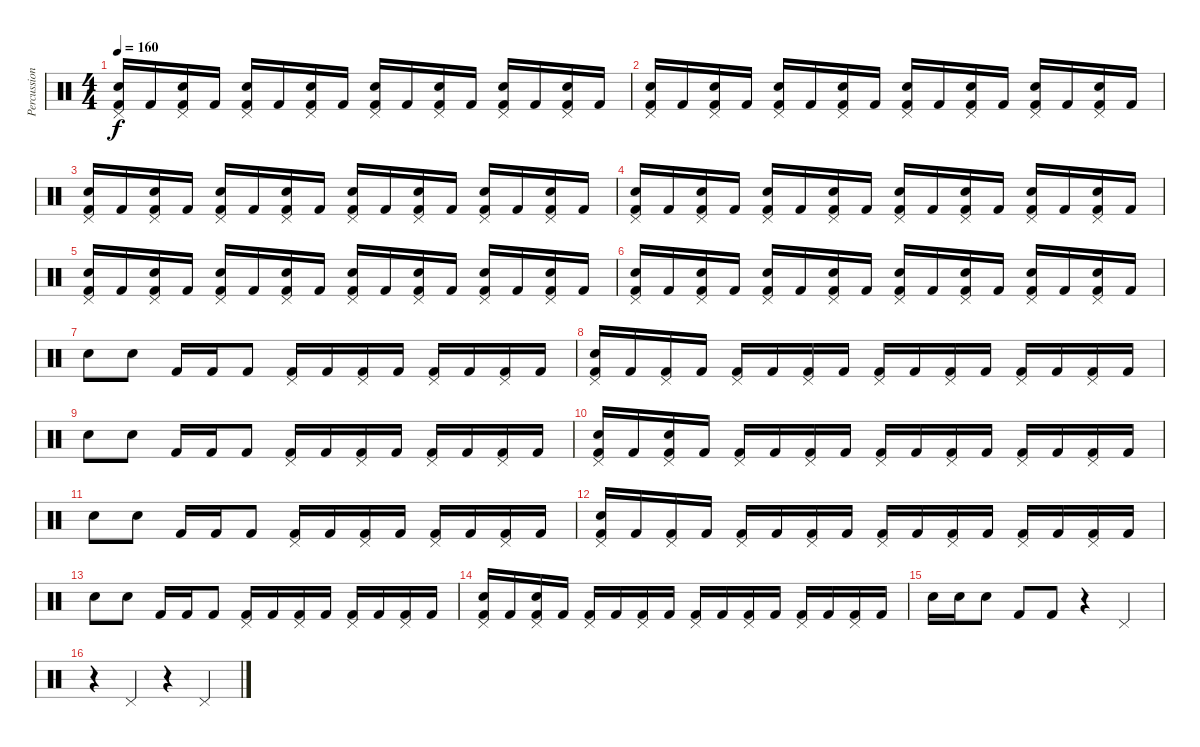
\track ("Percussion" "Percussion") {instrument percussion}
\staff {score}
\articulation defaults
\ts (4 4)
\tempo 160
\clef neutral
\ks c
("Pedal Hi-Hat (hit)" "Snare (hit) 2" "Kick (hit) 2").16{dy f} "Kick (hit) 2".16 ("Pedal Hi-Hat (hit)" "Snare (hit) 2" "Kick (hit) 2").16 "Kick (hit) 2".16 ("Pedal Hi-Hat (hit)" "Snare (hit) 2" "Kick (hit) 2").16 "Kick (hit) 2".16 ("Pedal Hi-Hat (hit)" "Snare (hit) 2" "Kick (hit) 2").16 "Kick (hit) 2".16 ("Pedal Hi-Hat (hit)" "Snare (hit) 2" "Kick (hit) 2").16 "Kick (hit) 2".16 ("Pedal Hi-Hat (hit)" "Snare (hit) 2" "Kick (hit) 2").16 "Kick (hit) 2".16 ("Pedal Hi-Hat (hit)" "Snare (hit) 2" "Kick (hit) 2").16 "Kick (hit) 2".16 ("Pedal Hi-Hat (hit)" "Snare (hit) 2" "Kick (hit) 2").16 "Kick (hit) 2".16 |
("Pedal Hi-Hat (hit)" "Snare (hit) 2" "Kick (hit) 2").16 "Kick (hit) 2".16 ("Pedal Hi-Hat (hit)" "Snare (hit) 2" "Kick (hit) 2").16 "Kick (hit) 2".16 ("Pedal Hi-Hat (hit)" "Snare (hit) 2" "Kick (hit) 2").16 "Kick (hit) 2".16 ("Pedal Hi-Hat (hit)" "Snare (hit) 2" "Kick (hit) 2").16 "Kick (hit) 2".16 ("Pedal Hi-Hat (hit)" "Snare (hit) 2" "Kick (hit) 2").16 "Kick (hit) 2".16 ("Pedal Hi-Hat (hit)" "Snare (hit) 2" "Kick (hit) 2").16 "Kick (hit) 2".16 ("Pedal Hi-Hat (hit)" "Snare (hit) 2" "Kick (hit) 2").16 "Kick (hit) 2".16 ("Pedal Hi-Hat (hit)" "Snare (hit) 2" "Kick (hit) 2").16 "Kick (hit) 2".16 |
("Pedal Hi-Hat (hit)" "Snare (hit) 2" "Kick (hit) 2").16 "Kick (hit) 2".16 ("Pedal Hi-Hat (hit)" "Snare (hit) 2" "Kick (hit) 2").16 "Kick (hit) 2".16 ("Pedal Hi-Hat (hit)" "Snare (hit) 2" "Kick (hit) 2").16 "Kick (hit) 2".16 ("Pedal Hi-Hat (hit)" "Snare (hit) 2" "Kick (hit) 2").16 "Kick (hit) 2".16 ("Pedal Hi-Hat (hit)" "Snare (hit) 2" "Kick (hit) 2").16 "Kick (hit) 2".16 ("Pedal Hi-Hat (hit)" "Snare (hit) 2" "Kick (hit) 2").16 "Kick (hit) 2".16 ("Pedal Hi-Hat (hit)" "Snare (hit) 2" "Kick (hit) 2").16 "Kick (hit) 2".16 ("Pedal Hi-Hat (hit)" "Snare (hit) 2" "Kick (hit) 2").16 "Kick (hit) 2".16 |
("Pedal Hi-Hat (hit)" "Snare (hit) 2" "Kick (hit) 2").16 "Kick (hit) 2".16 ("Pedal Hi-Hat (hit)" "Snare (hit) 2" "Kick (hit) 2").16 "Kick (hit) 2".16 ("Pedal Hi-Hat (hit)" "Snare (hit) 2" "Kick (hit) 2").16 "Kick (hit) 2".16 ("Pedal Hi-Hat (hit)" "Snare (hit) 2" "Kick (hit) 2").16 "Kick (hit) 2".16 ("Pedal Hi-Hat (hit)" "Snare (hit) 2" "Kick (hit) 2").16 "Kick (hit) 2".16 ("Pedal Hi-Hat (hit)" "Snare (hit) 2" "Kick (hit) 2").16 "Kick (hit) 2".16 ("Pedal Hi-Hat (hit)" "Snare (hit) 2" "Kick (hit) 2").16 "Kick (hit) 2".16 ("Pedal Hi-Hat (hit)" "Snare (hit) 2" "Kick (hit) 2").16 "Kick (hit) 2".16 |
("Pedal Hi-Hat (hit)" "Snare (hit) 2" "Kick (hit) 2").16 "Kick (hit) 2".16 ("Pedal Hi-Hat (hit)" "Snare (hit) 2" "Kick (hit) 2").16 "Kick (hit) 2".16 ("Pedal Hi-Hat (hit)" "Snare (hit) 2" "Kick (hit) 2").16 "Kick (hit) 2".16 ("Pedal Hi-Hat (hit)" "Snare (hit) 2" "Kick (hit) 2").16 "Kick (hit) 2".16 ("Pedal Hi-Hat (hit)" "Snare (hit) 2" "Kick (hit) 2").16 "Kick (hit) 2".16 ("Pedal Hi-Hat (hit)" "Snare (hit) 2" "Kick (hit) 2").16 "Kick (hit) 2".16 ("Pedal Hi-Hat (hit)" "Snare (hit) 2" "Kick (hit) 2").16 "Kick (hit) 2".16 ("Pedal Hi-Hat (hit)" "Snare (hit) 2" "Kick (hit) 2").16 "Kick (hit) 2".16 |
("Pedal Hi-Hat (hit)" "Snare (hit) 2" "Kick (hit) 2").16 "Kick (hit) 2".16 ("Pedal Hi-Hat (hit)" "Snare (hit) 2" "Kick (hit) 2").16 "Kick (hit) 2".16 ("Pedal Hi-Hat (hit)" "Snare (hit) 2" "Kick (hit) 2").16 "Kick (hit) 2".16 ("Pedal Hi-Hat (hit)" "Snare (hit) 2" "Kick (hit) 2").16 "Kick (hit) 2".16 ("Pedal Hi-Hat (hit)" "Snare (hit) 2" "Kick (hit) 2").16 "Kick (hit) 2".16 ("Pedal Hi-Hat (hit)" "Snare (hit) 2" "Kick (hit) 2").16 "Kick (hit) 2".16 ("Pedal Hi-Hat (hit)" "Snare (hit) 2" "Kick (hit) 2").16 "Kick (hit) 2".16 ("Pedal Hi-Hat (hit)" "Snare (hit) 2" "Kick (hit) 2").16 "Kick (hit) 2".16 |
"Snare (hit) 2".8 "Snare (hit) 2".8 "Kick (hit) 2".16 "Kick (hit) 2".16 "Kick (hit) 2".8 ("Pedal Hi-Hat (hit)" "Kick (hit) 2").16 "Kick (hit) 2".16 ("Pedal Hi-Hat (hit)" "Kick (hit) 2").16 "Kick (hit) 2".16 ("Pedal Hi-Hat (hit)" "Kick (hit) 2").16 "Kick (hit) 2".16 ("Pedal Hi-Hat (hit)" "Kick (hit) 2").16 "Kick (hit) 2".16 |
("Pedal Hi-Hat (hit)" "Snare (hit) 2" "Kick (hit) 2").16 "Kick (hit) 2".16 ("Pedal Hi-Hat (hit)" "Kick (hit) 2").16 "Kick (hit) 2".16 ("Pedal Hi-Hat (hit)" "Kick (hit) 2").16 "Kick (hit) 2".16 ("Pedal Hi-Hat (hit)" "Kick (hit) 2").16 "Kick (hit) 2".16 ("Pedal Hi-Hat (hit)" "Kick (hit) 2").16 "Kick (hit) 2".16 ("Pedal Hi-Hat (hit)" "Kick (hit) 2").16 "Kick (hit) 2".16 ("Pedal Hi-Hat (hit)" "Kick (hit) 2").16 "Kick (hit) 2".16 ("Pedal Hi-Hat (hit)" "Kick (hit) 2").16 "Kick (hit) 2".16 |
"Snare (hit) 2".8 "Snare (hit) 2".8 "Kick (hit) 2".16 "Kick (hit) 2".16 "Kick (hit) 2".8 ("Pedal Hi-Hat (hit)" "Kick (hit) 2").16 "Kick (hit) 2".16 ("Pedal Hi-Hat (hit)" "Kick (hit) 2").16 "Kick (hit) 2".16 ("Pedal Hi-Hat (hit)" "Kick (hit) 2").16 "Kick (hit) 2".16 ("Pedal Hi-Hat (hit)" "Kick (hit) 2").16 "Kick (hit) 2".16 |
("Pedal Hi-Hat (hit)" "Snare (hit) 2" "Kick (hit) 2").16 "Kick (hit) 2".16 ("Pedal Hi-Hat (hit)" "Snare (hit) 2" "Kick (hit) 2").16 "Kick (hit) 2".16 ("Pedal Hi-Hat (hit)" "Kick (hit) 2").16 "Kick (hit) 2".16 ("Pedal Hi-Hat (hit)" "Kick (hit) 2").16 "Kick (hit) 2".16 ("Pedal Hi-Hat (hit)" "Kick (hit) 2").16 "Kick (hit) 2".16 ("Pedal Hi-Hat (hit)" "Kick (hit) 2").16 "Kick (hit) 2".16 ("Pedal Hi-Hat (hit)" "Kick (hit) 2").16 "Kick (hit) 2".16 ("Pedal Hi-Hat (hit)" "Kick (hit) 2").16 "Kick (hit) 2".16 |
"Snare (hit) 2".8 "Snare (hit) 2".8 "Kick (hit) 2".16 "Kick (hit) 2".16 "Kick (hit) 2".8 ("Pedal Hi-Hat (hit)" "Kick (hit) 2").16 "Kick (hit) 2".16 ("Pedal Hi-Hat (hit)" "Kick (hit) 2").16 "Kick (hit) 2".16 ("Pedal Hi-Hat (hit)" "Kick (hit) 2").16 "Kick (hit) 2".16 ("Pedal Hi-Hat (hit)" "Kick (hit) 2").16 "Kick (hit) 2".16 |
("Pedal Hi-Hat (hit)" "Snare (hit) 2" "Kick (hit) 2").16 "Kick (hit) 2".16 ("Pedal Hi-Hat (hit)" "Kick (hit) 2").16 "Kick (hit) 2".16 ("Pedal Hi-Hat (hit)" "Kick (hit) 2").16 "Kick (hit) 2".16 ("Pedal Hi-Hat (hit)" "Kick (hit) 2").16 "Kick (hit) 2".16 ("Pedal Hi-Hat (hit)" "Kick (hit) 2").16 "Kick (hit) 2".16 ("Pedal Hi-Hat (hit)" "Kick (hit) 2").16 "Kick (hit) 2".16 ("Pedal Hi-Hat (hit)" "Kick (hit) 2").16 "Kick (hit) 2".16 ("Pedal Hi-Hat (hit)" "Kick (hit) 2").16 "Kick (hit) 2".16 |
"Snare (hit) 2".8 "Snare (hit) 2".8 "Kick (hit) 2".16 "Kick (hit) 2".16 "Kick (hit) 2".8 ("Pedal Hi-Hat (hit)" "Kick (hit) 2").16 "Kick (hit) 2".16 ("Pedal Hi-Hat (hit)" "Kick (hit) 2").16 "Kick (hit) 2".16 ("Pedal Hi-Hat (hit)" "Kick (hit) 2").16 "Kick (hit) 2".16 ("Pedal Hi-Hat (hit)" "Kick (hit) 2").16 "Kick (hit) 2".16 |
("Pedal Hi-Hat (hit)" "Snare (hit) 2" "Kick (hit) 2").16 "Kick (hit) 2".16 ("Pedal Hi-Hat (hit)" "Snare (hit) 2" "Kick (hit) 2").16 "Kick (hit) 2".16 ("Pedal Hi-Hat (hit)" "Kick (hit) 2").16 "Kick (hit) 2".16 ("Pedal Hi-Hat (hit)" "Kick (hit) 2").16 "Kick (hit) 2".16 ("Pedal Hi-Hat (hit)" "Kick (hit) 2").16 "Kick (hit) 2".16 ("Pedal Hi-Hat (hit)" "Kick (hit) 2").16 "Kick (hit) 2".16 ("Pedal Hi-Hat (hit)" "Kick (hit) 2").16 "Kick (hit) 2".16 ("Pedal Hi-Hat (hit)" "Kick (hit) 2").16 "Kick (hit) 2".16 |
"Snare (hit) 2".16 "Snare (hit) 2".16 "Snare (hit) 2".8 "Kick (hit) 2".8 "Kick (hit) 2".8 r.4 "Pedal Hi-Hat (hit)".4 |
r.4 "Pedal Hi-Hat (hit)".4 r.4 "Pedal Hi-Hat (hit)".4
